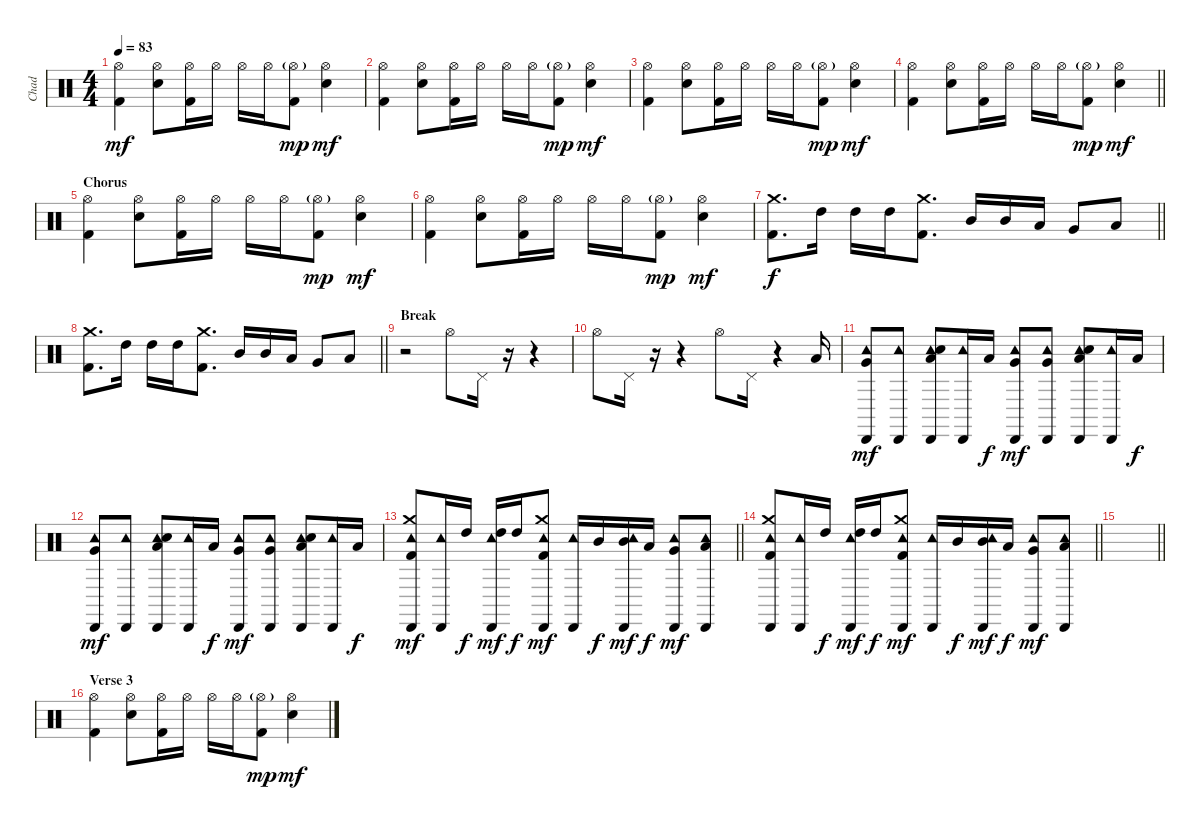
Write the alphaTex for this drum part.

\track ("Chad" "Chad") {instrument percussion}
\staff {score}
\articulation defaults
\ts (4 4)
\tempo 83
\clef neutral
\ks c
("Hi-Hat (open)" "Kick (hit) 2").4{dy mf} ("Hi-Hat (open)" "Electric Snare (hit)").8 ("Hi-Hat (open)" "Kick (hit) 2").16 "Hi-Hat (open)".16 "Hi-Hat (open)".16 "Hi-Hat (open)".16 ("Hi-Hat (open)"{g} "Kick (hit) 2").8{dy mp} ("Hi-Hat (open)" "Electric Snare (hit)").4{dy mf} |
("Hi-Hat (open)" "Kick (hit) 2").4 ("Hi-Hat (open)" "Electric Snare (hit)").8 ("Hi-Hat (open)" "Kick (hit) 2").16 "Hi-Hat (open)".16 "Hi-Hat (open)".16 "Hi-Hat (open)".16 ("Hi-Hat (open)"{g} "Kick (hit) 2").8{dy mp} ("Hi-Hat (open)" "Electric Snare (hit)").4{dy mf} |
("Hi-Hat (open)" "Kick (hit) 2").4 ("Hi-Hat (open)" "Electric Snare (hit)").8 ("Hi-Hat (open)" "Kick (hit) 2").16 "Hi-Hat (open)".16 "Hi-Hat (open)".16 "Hi-Hat (open)".16 ("Hi-Hat (open)"{g} "Kick (hit) 2").8{dy mp} ("Hi-Hat (open)" "Electric Snare (hit)").4{dy mf} |
\barLineRight lightlight
("Hi-Hat (open)" "Kick (hit) 2").4 ("Hi-Hat (open)" "Electric Snare (hit)").8 ("Hi-Hat (open)" "Kick (hit) 2").16 "Hi-Hat (open)".16 "Hi-Hat (open)".16 "Hi-Hat (open)".16 ("Hi-Hat (open)"{g} "Kick (hit) 2").8{dy mp} ("Hi-Hat (open)" "Electric Snare (hit)").4{dy mf} |
\section ("" "Chorus")
("Hi-Hat (open)" "Kick (hit) 2").4 ("Hi-Hat (open)" "Electric Snare (hit)").8 ("Hi-Hat (open)" "Kick (hit) 2").16 "Hi-Hat (open)".16 "Hi-Hat (open)".16 "Hi-Hat (open)".16 ("Hi-Hat (open)"{g} "Kick (hit) 2").8{dy mp} ("Hi-Hat (open)" "Electric Snare (hit)").4{dy mf} |
("Hi-Hat (open)" "Kick (hit) 2").4 ("Hi-Hat (open)" "Electric Snare (hit)").8 ("Hi-Hat (open)" "Kick (hit) 2").16 "Hi-Hat (open)".16 "Hi-Hat (open)".16 "Hi-Hat (open)".16 ("Hi-Hat (open)"{g} "Kick (hit) 2").8{dy mp} ("Hi-Hat (open)" "Electric Snare (hit)").4{dy mf} |
\barLineRight lightlight
("Crash medium (hit)" "Kick (hit) 2").8{d dy f} "High Tom (hit)".16 "High Tom (hit)".16 "High Tom (hit)".16 ("Crash medium (hit)" "Kick (hit) 2").8{d} "Mid Tom (hit)".16 "Mid Tom (hit)".16 "Low Tom (hit)".16 "Very Low Tom (hit)".8 "Low Floor Tom (hit)".8 |
\barLineRight lightlight
("Crash medium (hit)" "Kick (hit) 2").8{d} "High Tom (hit)".16 "High Tom (hit)".16 "High Tom (hit)".16 ("Crash medium (hit)" "Kick (hit) 2").8{d} "Mid Tom (hit)".16 "Mid Tom (hit)".16 "Low Tom (hit)".16 "Very Low Tom (hit)".8 "Low Floor Tom (hit)".8 |
\section ("" "Break")
r.2 "Hi-Hat (open)".8 "Pedal Hi-Hat (hit)".16 r.16 r.4 |
"Hi-Hat (open)".8 "Pedal Hi-Hat (hit)".16 r.16 r.4 "Hi-Hat (open)".8 "Pedal Hi-Hat (hit)".16 r.4 "Low Tom (hit)".16 |
("Cabasa (hit)" "Tambourine (hit)" "Very Low Tom (hit)").8{dy mf} ("Cabasa (hit)" "Tambourine (hit)").8 ("Cabasa (hit)" "Tambourine (hit)" "Snare (hit) 2" "Low Tom (hit)").8 ("Cabasa (hit)" "Tambourine (hit)").16 "Low Tom (hit)".16{dy f} ("Cabasa (hit)" "Tambourine (hit)" "Very Low Tom (hit)").8{dy mf} ("Cabasa (hit)" "Tambourine (hit)" "Very Low Tom (hit)").8 ("Cabasa (hit)" "Tambourine (hit)" "Snare (hit) 2" "Low Tom (hit)").8 ("Cabasa (hit)" "Tambourine (hit)").16 "Low Tom (hit)".16{dy f} |
("Cabasa (hit)" "Tambourine (hit)" "Very Low Tom (hit)").8{dy mf} ("Cabasa (hit)" "Tambourine (hit)").8 ("Cabasa (hit)" "Tambourine (hit)" "Snare (hit) 2" "Low Tom (hit)").8 ("Cabasa (hit)" "Tambourine (hit)").16 "Low Tom (hit)".16{dy f} ("Cabasa (hit)" "Tambourine (hit)" "Very Low Tom (hit)").8{dy mf} ("Cabasa (hit)" "Tambourine (hit)" "Very Low Tom (hit)").8 ("Cabasa (hit)" "Tambourine (hit)" "Snare (hit) 2" "Low Tom (hit)").8 ("Cabasa (hit)" "Tambourine (hit)").16 "Low Tom (hit)".16{dy f} |
\barLineRight lightlight
("Crash medium (hit)" "Kick (hit) 2" "Tambourine (hit)" "Cabasa (hit)").8{dy mf} ("Tambourine (hit)" "Cabasa (hit)").16 "High Tom (hit)".16{dy f} ("High Tom (hit)" "Tambourine (hit)" "Cabasa (hit)").16{dy mf} "High Tom (hit)".16{dy f} ("Crash medium (hit)" "Kick (hit) 2" "Tambourine (hit)" "Cabasa (hit)").8{dy mf} ("Tambourine (hit)" "Cabasa (hit)").16 "Mid Tom (hit)".16{dy f} ("Mid Tom (hit)" "Tambourine (hit)" "Cabasa (hit)").16{dy mf} "Low Tom (hit)".16{dy f} ("Very Low Tom (hit)" "Tambourine (hit)" "Cabasa (hit)").8{dy mf} ("Low Floor Tom (hit)" "Tambourine (hit)" "Cabasa (hit)").8 |
\barLineRight lightlight
("Crash medium (hit)" "Kick (hit) 2" "Tambourine (hit)" "Cabasa (hit)").8 ("Tambourine (hit)" "Cabasa (hit)").16 "High Tom (hit)".16{dy f} ("High Tom (hit)" "Tambourine (hit)" "Cabasa (hit)").16{dy mf} "High Tom (hit)".16{dy f} ("Crash medium (hit)" "Kick (hit) 2" "Tambourine (hit)" "Cabasa (hit)").8{dy mf} ("Tambourine (hit)" "Cabasa (hit)").16 "Mid Tom (hit)".16{dy f} ("Mid Tom (hit)" "Tambourine (hit)" "Cabasa (hit)").16{dy mf} "Low Tom (hit)".16{dy f} ("Very Low Tom (hit)" "Tambourine (hit)" "Cabasa (hit)").8{dy mf} ("Low Floor Tom (hit)" "Tambourine (hit)" "Cabasa (hit)").8 |
\barLineRight lightlight
|
\section ("" "Verse 3")
("Hi-Hat (open)" "Kick (hit) 2").4 ("Hi-Hat (open)" "Electric Snare (hit)").8 ("Hi-Hat (open)" "Kick (hit) 2").16 "Hi-Hat (open)".16 "Hi-Hat (open)".16 "Hi-Hat (open)".16 ("Hi-Hat (open)"{g} "Kick (hit) 2").8{dy mp} ("Hi-Hat (open)" "Electric Snare (hit)").4{dy mf}
